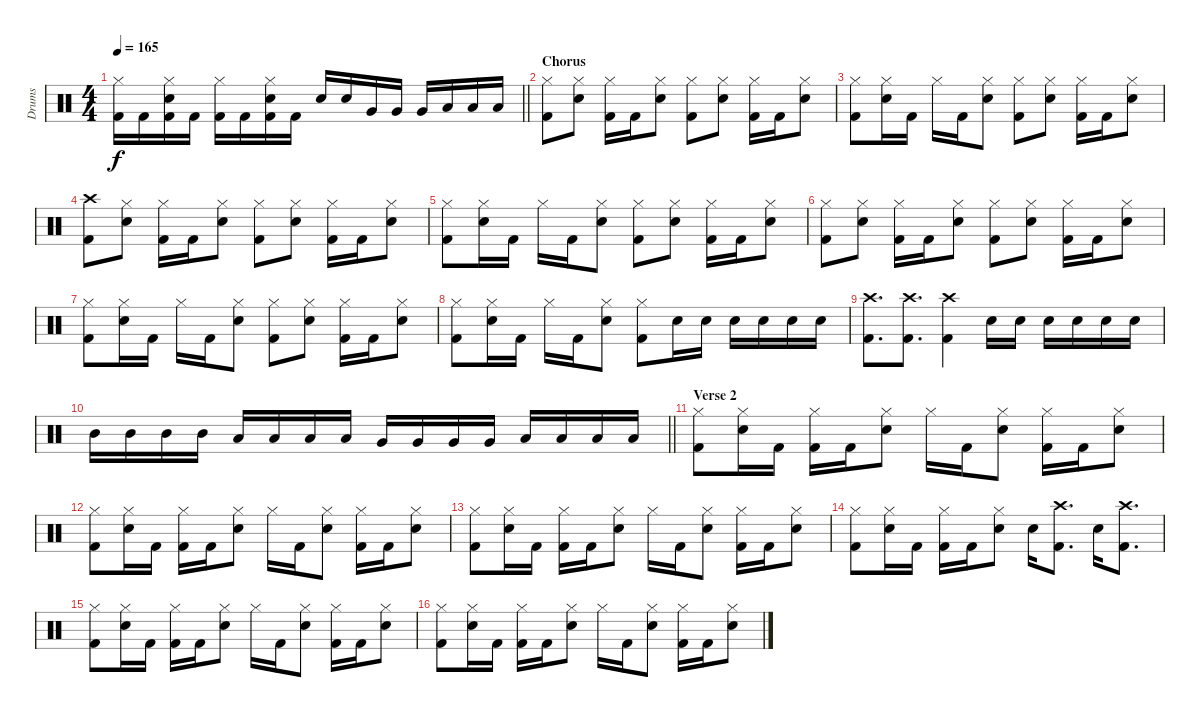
\track ("Drums" "Drums") {instrument percussion}
\staff {score}
\articulation defaults
\ts (4 4)
\tempo 165
\clef neutral
\barLineRight lightlight
\ks c
("Hi-Hat (closed)" "Kick (hit) 2").16{dy f} "Kick (hit) 2".16 ("Hi-Hat (closed)" "Snare (hit) 2" "Kick (hit) 2").16 "Kick (hit) 2".16 ("Hi-Hat (closed)" "Kick (hit) 2").16 "Kick (hit) 2".16 ("Hi-Hat (closed)" "Snare (hit) 2" "Kick (hit) 2").16 "Kick (hit) 2".16 "Snare (hit) 2".16 "Snare (hit) 2".16 "Very Low Tom (hit)".16 "Very Low Tom (hit)".16 "Very Low Tom (hit)".16 "Low Floor Tom (hit)".16 "Low Floor Tom (hit)".16 "Low Floor Tom (hit)".16 |
\section ("" "Chorus")
("Hi-Hat (closed)" "Kick (hit) 2").8 ("Hi-Hat (closed)" "Snare (hit) 2").8 ("Hi-Hat (closed)" "Kick (hit) 2").16 "Kick (hit) 2".16 ("Hi-Hat (closed)" "Snare (hit) 2").8 ("Hi-Hat (closed)" "Kick (hit) 2").8 ("Hi-Hat (closed)" "Snare (hit) 2").8 ("Hi-Hat (closed)" "Kick (hit) 2").16 "Kick (hit) 2".16 ("Hi-Hat (closed)" "Snare (hit) 2").8 |
("Hi-Hat (closed)" "Kick (hit) 2").8 ("Hi-Hat (closed)" "Snare (hit) 2").16 "Kick (hit) 2".16 "Hi-Hat (closed)".16 "Kick (hit) 2".16 ("Hi-Hat (closed)" "Snare (hit) 2").8 ("Hi-Hat (closed)" "Kick (hit) 2").8 ("Hi-Hat (closed)" "Snare (hit) 2").8 ("Hi-Hat (closed)" "Kick (hit) 2").16 "Kick (hit) 2".16 ("Hi-Hat (closed)" "Snare (hit) 2").8 |
("Crash high (hit)" "Kick (hit) 2").8 ("Hi-Hat (closed)" "Snare (hit) 2").8 ("Hi-Hat (closed)" "Kick (hit) 2").16 "Kick (hit) 2".16 ("Hi-Hat (closed)" "Snare (hit) 2").8 ("Hi-Hat (closed)" "Kick (hit) 2").8 ("Hi-Hat (closed)" "Snare (hit) 2").8 ("Hi-Hat (closed)" "Kick (hit) 2").16 "Kick (hit) 2".16 ("Hi-Hat (closed)" "Snare (hit) 2").8 |
("Hi-Hat (closed)" "Kick (hit) 2").8 ("Hi-Hat (closed)" "Snare (hit) 2").16 "Kick (hit) 2".16 "Hi-Hat (closed)".16 "Kick (hit) 2".16 ("Hi-Hat (closed)" "Snare (hit) 2").8 ("Hi-Hat (closed)" "Kick (hit) 2").8 ("Hi-Hat (closed)" "Snare (hit) 2").8 ("Hi-Hat (closed)" "Kick (hit) 2").16 "Kick (hit) 2".16 ("Hi-Hat (closed)" "Snare (hit) 2").8 |
("Hi-Hat (closed)" "Kick (hit) 2").8 ("Hi-Hat (closed)" "Snare (hit) 2").8 ("Hi-Hat (closed)" "Kick (hit) 2").16 "Kick (hit) 2".16 ("Hi-Hat (closed)" "Snare (hit) 2").8 ("Hi-Hat (closed)" "Kick (hit) 2").8 ("Hi-Hat (closed)" "Snare (hit) 2").8 ("Hi-Hat (closed)" "Kick (hit) 2").16 "Kick (hit) 2".16 ("Hi-Hat (closed)" "Snare (hit) 2").8 |
("Hi-Hat (closed)" "Kick (hit) 2").8 ("Hi-Hat (closed)" "Snare (hit) 2").16 "Kick (hit) 2".16 "Hi-Hat (closed)".16 "Kick (hit) 2".16 ("Hi-Hat (closed)" "Snare (hit) 2").8 ("Hi-Hat (closed)" "Kick (hit) 2").8 ("Hi-Hat (closed)" "Snare (hit) 2").8 ("Hi-Hat (closed)" "Kick (hit) 2").16 "Kick (hit) 2".16 ("Hi-Hat (closed)" "Snare (hit) 2").8 |
("Hi-Hat (closed)" "Kick (hit) 2").8 ("Hi-Hat (closed)" "Snare (hit) 2").16 "Kick (hit) 2".16 "Hi-Hat (closed)".16 "Kick (hit) 2".16 ("Hi-Hat (closed)" "Snare (hit) 2").8 ("Hi-Hat (closed)" "Kick (hit) 2").8 "Snare (hit) 2".16 "Snare (hit) 2".16 "Snare (hit) 2".16 "Snare (hit) 2".16 "Snare (hit) 2".16 "Snare (hit) 2".16 |
("Crash high (hit)" "Kick (hit) 2").8{d} ("Crash high (hit)" "Kick (hit) 2").8{d} ("Crash high (hit)" "Kick (hit) 2").4 "Snare (hit) 2".16 "Snare (hit) 2".16 "Snare (hit) 2".16 "Snare (hit) 2".16 "Snare (hit) 2".16 "Snare (hit) 2".16 |
\barLineRight lightlight "Mid Tom (hit)".16 "Mid Tom (hit)".16 "Mid Tom (hit)".16 "Mid Tom (hit)".16 "Low Tom (hit)".16 "Low Tom (hit)".16 "Low Tom (hit)".16 "Low Tom (hit)".16 "Very Low Tom (hit)".16 "Very Low Tom (hit)".16 "Very Low Tom (hit)".16 "Very Low Tom (hit)".16 "Low Floor Tom (hit)".16 "Low Floor Tom (hit)".16 "Low Floor Tom (hit)".16 "Low Floor Tom (hit)".16
|
\section ("" "Verse 2")
("Hi-Hat (closed)" "Kick (hit) 2").8 ("Hi-Hat (closed)" "Snare (hit) 2").16 "Kick (hit) 2".16 ("Hi-Hat (closed)" "Kick (hit) 2").16 "Kick (hit) 2".16 ("Hi-Hat (closed)" "Snare (hit) 2").8 "Hi-Hat (closed)".16 "Kick (hit) 2".16 ("Hi-Hat (closed)" "Snare (hit) 2").8 ("Hi-Hat (closed)" "Kick (hit) 2").16 "Kick (hit) 2".16 ("Hi-Hat (closed)" "Snare (hit) 2").8 |
("Hi-Hat (closed)" "Kick (hit) 2").8 ("Hi-Hat (closed)" "Snare (hit) 2").16 "Kick (hit) 2".16 ("Hi-Hat (closed)" "Kick (hit) 2").16 "Kick (hit) 2".16 ("Hi-Hat (closed)" "Snare (hit) 2").8 "Hi-Hat (closed)".16 "Kick (hit) 2".16 ("Hi-Hat (closed)" "Snare (hit) 2").8 ("Hi-Hat (closed)" "Kick (hit) 2").16 "Kick (hit) 2".16 ("Hi-Hat (closed)" "Snare (hit) 2").8 |
("Hi-Hat (closed)" "Kick (hit) 2").8 ("Hi-Hat (closed)" "Snare (hit) 2").16 "Kick (hit) 2".16 ("Hi-Hat (closed)" "Kick (hit) 2").16 "Kick (hit) 2".16 ("Hi-Hat (closed)" "Snare (hit) 2").8 "Hi-Hat (closed)".16 "Kick (hit) 2".16 ("Hi-Hat (closed)" "Snare (hit) 2").8 ("Hi-Hat (closed)" "Kick (hit) 2").16 "Kick (hit) 2".16 ("Hi-Hat (closed)" "Snare (hit) 2").8 |
("Hi-Hat (closed)" "Kick (hit) 2").8 ("Hi-Hat (closed)" "Snare (hit) 2").16 "Kick (hit) 2".16 ("Hi-Hat (closed)" "Kick (hit) 2").16 "Kick (hit) 2".16 ("Hi-Hat (closed)" "Snare (hit) 2").8 "Snare (hit) 2".16 ("Crash high (hit)" "Kick (hit) 2").8{d} "Snare (hit) 2".16 ("Crash high (hit)" "Kick (hit) 2").8{d} |
("Hi-Hat (closed)" "Kick (hit) 2").8 ("Hi-Hat (closed)" "Snare (hit) 2").16 "Kick (hit) 2".16 ("Hi-Hat (closed)" "Kick (hit) 2").16 "Kick (hit) 2".16 ("Hi-Hat (closed)" "Snare (hit) 2").8 "Hi-Hat (closed)".16 "Kick (hit) 2".16 ("Hi-Hat (closed)" "Snare (hit) 2").8 ("Hi-Hat (closed)" "Kick (hit) 2").16 "Kick (hit) 2".16 ("Hi-Hat (closed)" "Snare (hit) 2").8 |
("Hi-Hat (closed)" "Kick (hit) 2").8 ("Hi-Hat (closed)" "Snare (hit) 2").16 "Kick (hit) 2".16 ("Hi-Hat (closed)" "Kick (hit) 2").16 "Kick (hit) 2".16 ("Hi-Hat (closed)" "Snare (hit) 2").8 "Hi-Hat (closed)".16 "Kick (hit) 2".16 ("Hi-Hat (closed)" "Snare (hit) 2").8 ("Hi-Hat (closed)" "Kick (hit) 2").16 "Kick (hit) 2".16 ("Hi-Hat (closed)" "Snare (hit) 2").8
